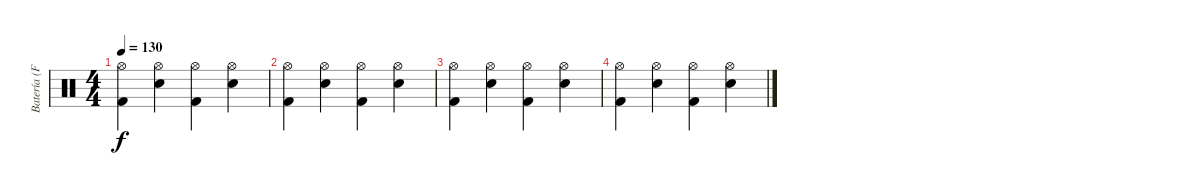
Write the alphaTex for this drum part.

\track ("Batería (F. Scarcella)" "Batería (F") {instrument percussion}
\staff {score}
\articulation defaults
\ts (4 4)
\tempo 130
\clef neutral
\ks c
("Kick (hit) 2" "Hi-Hat (open)").4{dy f} ("Snare (hit) 2" "Hi-Hat (open)").4 ("Kick (hit) 2" "Hi-Hat (open)").4 ("Snare (hit) 2" "Hi-Hat (open)").4 |
("Kick (hit) 2" "Hi-Hat (open)").4 ("Snare (hit) 2" "Hi-Hat (open)").4 ("Kick (hit) 2" "Hi-Hat (open)").4 ("Snare (hit) 2" "Hi-Hat (open)").4 |
("Kick (hit) 2" "Hi-Hat (open)").4 ("Snare (hit) 2" "Hi-Hat (open)").4 ("Kick (hit) 2" "Hi-Hat (open)").4 ("Snare (hit) 2" "Hi-Hat (open)").4 |
("Kick (hit) 2" "Hi-Hat (open)").4 ("Snare (hit) 2" "Hi-Hat (open)").4 ("Kick (hit) 2" "Hi-Hat (open)").4 ("Snare (hit) 2" "Hi-Hat (open)").4
